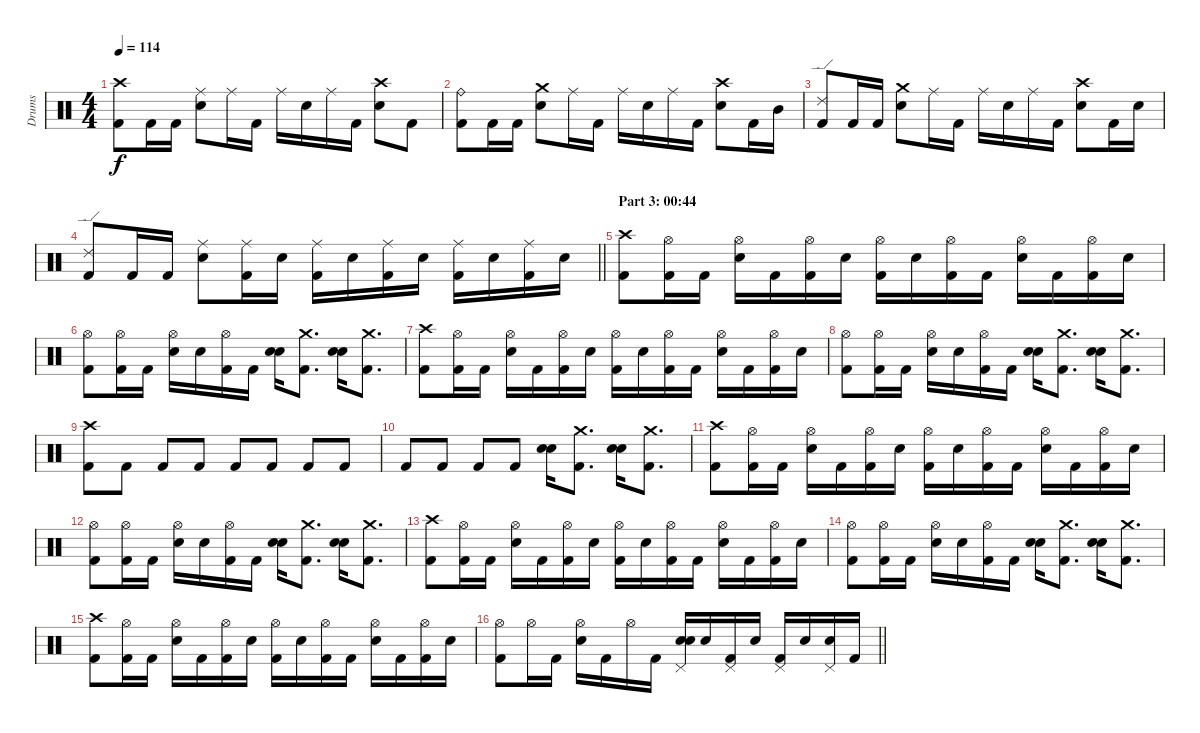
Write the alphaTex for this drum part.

\track ("Drums" "Drums") {instrument percussion}
\staff {score}
\articulation defaults
\ts (4 4)
\tempo 114
\clef neutral
\ks c
("Crash high (hit)" "Kick (hit) 2").8{dy f} "Kick (hit) 2".16 "Kick (hit) 2".16 ("Ride (middle)" "Electric Snare (hit)").8 "Ride (middle)".16 "Kick (hit) 2".16 "Ride (middle)".16 "Electric Snare (hit)".16 "Ride (middle)".16 "Kick (hit) 2".16 ("Crash high (hit)" "Electric Snare (hit)").8 "Kick (hit) 2".8 |
("Ride (bell)" "Kick (hit) 2").8 "Kick (hit) 2".16 "Kick (hit) 2".16 ("Crash medium (hit)" "Electric Snare (hit)").8 "Ride (middle)".16 "Kick (hit) 2".16 "Ride (middle)".16 "Electric Snare (hit)".16 "Ride (middle)".16 "Kick (hit) 2".16 ("Crash high (hit)" "Electric Snare (hit)").8 "Kick (hit) 2".16 "Mid Tom (hit)".16 |
("Ride (edge) 2" "Kick (hit) 2").8 "Kick (hit) 2".16 "Kick (hit) 2".16 ("Crash medium (hit)" "Electric Snare (hit)").8 "Ride (middle)".16 "Kick (hit) 2".16 "Ride (middle)".16 "Electric Snare (hit)".16 "Ride (middle)".16 "Kick (hit) 2".16 ("Crash high (hit)" "Electric Snare (hit)").8 "Kick (hit) 2".16 "Electric Snare (hit)".16 |
\barLineRight lightlight
("Ride (edge) 2" "Kick (hit) 2").8 "Kick (hit) 2".16 "Kick (hit) 2".16 ("Ride (middle)" "Electric Snare (hit)").8 ("Ride (middle)" "Kick (hit) 2").16 "Electric Snare (hit)".16 ("Ride (middle)" "Kick (hit) 2").16 "Electric Snare (hit)".16 ("Ride (middle)" "Kick (hit) 2").16 "Electric Snare (hit)".16 ("Ride (middle)" "Kick (hit) 2").16 "Electric Snare (hit)".16 ("Ride (middle)" "Kick (hit) 2").16 "Electric Snare (hit)".16 |
\section ("" "Part 3: 00:44")
("Crash high (hit)" "Kick (hit) 2").8 ("Hi-Hat (open)" "Kick (hit) 2").16 "Kick (hit) 2".16 ("Hi-Hat (open)" "Electric Snare (hit)").16 "Kick (hit) 2".16 ("Hi-Hat (open)" "Kick (hit) 2").16 "Electric Snare (hit)".16 ("Hi-Hat (open)" "Kick (hit) 2").16 "Electric Snare (hit)".16 ("Hi-Hat (open)" "Kick (hit) 2").16 "Kick (hit) 2".16 ("Hi-Hat (open)" "Electric Snare (hit)").16 "Kick (hit) 2".16 ("Hi-Hat (open)" "Kick (hit) 2").16 "Electric Snare (hit)".16 |
("Hi-Hat (open)" "Kick (hit) 2").8 ("Hi-Hat (open)" "Kick (hit) 2").16 "Kick (hit) 2".16 ("Hi-Hat (open)" "Electric Snare (hit)").16 "Electric Snare (hit)".16 ("Hi-Hat (open)" "Kick (hit) 2").16 "Kick (hit) 2".16 ("Electric Snare (hit)" "Electric Snare (hit)").16{bd 120} ("Crash medium (hit)" "Kick (hit) 2").8{d} ("Electric Snare (hit)" "Electric Snare (hit)").16{bd 120} ("Crash medium (hit)" "Kick (hit) 2").8{d} |
("Crash high (hit)" "Kick (hit) 2").8 ("Hi-Hat (open)" "Kick (hit) 2").16 "Kick (hit) 2".16 ("Hi-Hat (open)" "Electric Snare (hit)").16 "Kick (hit) 2".16 ("Hi-Hat (open)" "Kick (hit) 2").16 "Electric Snare (hit)".16 ("Hi-Hat (open)" "Kick (hit) 2").16 "Electric Snare (hit)".16 ("Hi-Hat (open)" "Kick (hit) 2").16 "Kick (hit) 2".16 ("Hi-Hat (open)" "Electric Snare (hit)").16 "Kick (hit) 2".16 ("Hi-Hat (open)" "Kick (hit) 2").16 "Electric Snare (hit)".16 |
("Hi-Hat (open)" "Kick (hit) 2").8 ("Hi-Hat (open)" "Kick (hit) 2").16 "Kick (hit) 2".16 ("Hi-Hat (open)" "Electric Snare (hit)").16 "Electric Snare (hit)".16 ("Hi-Hat (open)" "Kick (hit) 2").16 "Kick (hit) 2".16 ("Electric Snare (hit)" "Electric Snare (hit)").16{bd 120} ("Crash medium (hit)" "Kick (hit) 2").8{d} ("Electric Snare (hit)" "Electric Snare (hit)").16{bd 120} ("Crash medium (hit)" "Kick (hit) 2").8{d} |
("Crash high (hit)" "Kick (hit) 2").8 "Kick (hit) 2".8 "Kick (hit) 2".8 "Kick (hit) 2".8 "Kick (hit) 2".8 "Kick (hit) 2".8 "Kick (hit) 2".8 "Kick (hit) 2".8 |
"Kick (hit) 2".8 "Kick (hit) 2".8 "Kick (hit) 2".8 "Kick (hit) 2".8 ("Electric Snare (hit)" "Electric Snare (hit)").16{bd 120} ("Crash medium (hit)" "Kick (hit) 2").8{d} ("Electric Snare (hit)" "Electric Snare (hit)").16{bd 120} ("Crash medium (hit)" "Kick (hit) 2").8{d} |
("Crash high (hit)" "Kick (hit) 2").8 ("Hi-Hat (open)" "Kick (hit) 2").16 "Kick (hit) 2".16 ("Hi-Hat (open)" "Electric Snare (hit)").16 "Kick (hit) 2".16 ("Hi-Hat (open)" "Kick (hit) 2").16 "Electric Snare (hit)".16 ("Hi-Hat (open)" "Kick (hit) 2").16 "Electric Snare (hit)".16 ("Hi-Hat (open)" "Kick (hit) 2").16 "Kick (hit) 2".16 ("Hi-Hat (open)" "Electric Snare (hit)").16 "Kick (hit) 2".16 ("Hi-Hat (open)" "Kick (hit) 2").16 "Electric Snare (hit)".16 |
("Hi-Hat (open)" "Kick (hit) 2").8 ("Hi-Hat (open)" "Kick (hit) 2").16 "Kick (hit) 2".16 ("Hi-Hat (open)" "Electric Snare (hit)").16 "Electric Snare (hit)".16 ("Hi-Hat (open)" "Kick (hit) 2").16 "Kick (hit) 2".16 ("Electric Snare (hit)" "Electric Snare (hit)").16{bd 120} ("Crash medium (hit)" "Kick (hit) 2").8{d} ("Electric Snare (hit)" "Electric Snare (hit)").16{bd 120} ("Crash medium (hit)" "Kick (hit) 2").8{d} |
("Crash high (hit)" "Kick (hit) 2").8 ("Hi-Hat (open)" "Kick (hit) 2").16 "Kick (hit) 2".16 ("Hi-Hat (open)" "Electric Snare (hit)").16 "Kick (hit) 2".16 ("Hi-Hat (open)" "Kick (hit) 2").16 "Electric Snare (hit)".16 ("Hi-Hat (open)" "Kick (hit) 2").16 "Electric Snare (hit)".16 ("Hi-Hat (open)" "Kick (hit) 2").16 "Kick (hit) 2".16 ("Hi-Hat (open)" "Electric Snare (hit)").16 "Kick (hit) 2".16 ("Hi-Hat (open)" "Kick (hit) 2").16 "Electric Snare (hit)".16 |
("Hi-Hat (open)" "Kick (hit) 2").8 ("Hi-Hat (open)" "Kick (hit) 2").16 "Kick (hit) 2".16 ("Hi-Hat (open)" "Electric Snare (hit)").16 "Electric Snare (hit)".16 ("Hi-Hat (open)" "Kick (hit) 2").16 "Kick (hit) 2".16 ("Electric Snare (hit)" "Electric Snare (hit)").16{bd 120} ("Crash medium (hit)" "Kick (hit) 2").8{d} ("Electric Snare (hit)" "Electric Snare (hit)").16{bd 120} ("Crash medium (hit)" "Kick (hit) 2").8{d} |
("Crash high (hit)" "Kick (hit) 2").8 ("Hi-Hat (open)" "Kick (hit) 2").16 "Kick (hit) 2".16 ("Hi-Hat (open)" "Electric Snare (hit)").16 "Kick (hit) 2".16 ("Hi-Hat (open)" "Kick (hit) 2").16 "Electric Snare (hit)".16 ("Hi-Hat (open)" "Kick (hit) 2").16 "Electric Snare (hit)".16 ("Hi-Hat (open)" "Kick (hit) 2").16 "Kick (hit) 2".16 ("Hi-Hat (open)" "Electric Snare (hit)").16 "Kick (hit) 2".16 ("Hi-Hat (open)" "Kick (hit) 2").16 "Electric Snare (hit)".16 |
\barLineRight lightlight
("Hi-Hat (open)" "Kick (hit) 2").8 "Hi-Hat (open)".16 "Kick (hit) 2".16 ("Hi-Hat (open)" "Electric Snare (hit)").16 "Kick (hit) 2".16 "Hi-Hat (open)".16 "Kick (hit) 2".16 ("Pedal Hi-Hat (hit)" "Electric Snare (hit)" "Electric Snare (hit)").16{bd 60} "Electric Snare (hit)".16 ("Pedal Hi-Hat (hit)" "Kick (hit) 2").16 "Electric Snare (hit)".16 ("Pedal Hi-Hat (hit)" "Kick (hit) 2").16 "Electric Snare (hit)".16 ("Pedal Hi-Hat (hit)" "Electric Snare (hit)").16 "Kick (hit) 2".16
